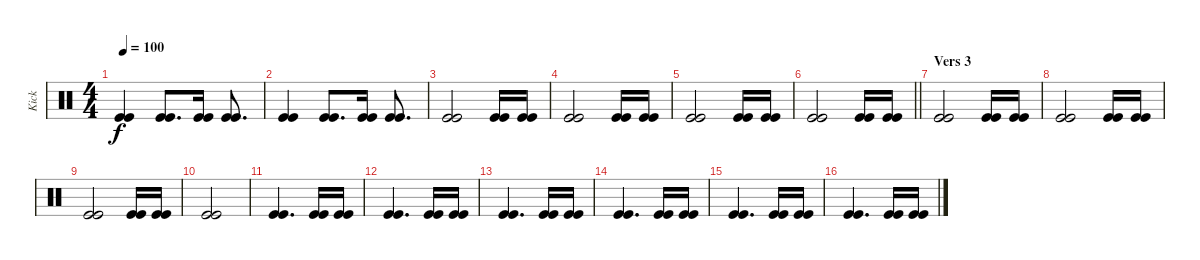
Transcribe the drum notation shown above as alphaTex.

\track ("Kick" "Kick") {instrument percussion}
\staff {score}
\articulation defaults
\ts (4 4)
\tempo 100
\clef neutral
\ks c
("Kick (hit)" "Kick (hit)").4{dy f} ("Kick (hit)" "Kick (hit)").8{d} ("Kick (hit)" "Kick (hit)").16 ("Kick (hit)" "Kick (hit)").8{d} |
("Kick (hit)" "Kick (hit)").4 ("Kick (hit)" "Kick (hit)").8{d} ("Kick (hit)" "Kick (hit)").16 ("Kick (hit)" "Kick (hit)").8{d} |
("Kick (hit)" "Kick (hit)").2{beam merge} ("Kick (hit)" "Kick (hit)").16 ("Kick (hit)" "Kick (hit)").16 |
("Kick (hit)" "Kick (hit)").2{beam merge} ("Kick (hit)" "Kick (hit)").16 ("Kick (hit)" "Kick (hit)").16 |
("Kick (hit)" "Kick (hit)").2{beam merge} ("Kick (hit)" "Kick (hit)").16 ("Kick (hit)" "Kick (hit)").16 |
\barLineRight lightlight
("Kick (hit)" "Kick (hit)").2{beam merge} ("Kick (hit)" "Kick (hit)").16 ("Kick (hit)" "Kick (hit)").16 |
\section ("" "Vers 3")
("Kick (hit)" "Kick (hit)").2{beam merge} ("Kick (hit)" "Kick (hit)").16 ("Kick (hit)" "Kick (hit)").16 |
("Kick (hit)" "Kick (hit)").2{beam merge} ("Kick (hit)" "Kick (hit)").16 ("Kick (hit)" "Kick (hit)").16 |
("Kick (hit)" "Kick (hit)").2{beam merge} ("Kick (hit)" "Kick (hit)").16 ("Kick (hit)" "Kick (hit)").16 |
("Kick (hit)" "Kick (hit)").2 |
("Kick (hit)" "Kick (hit)").4{d beam merge} ("Kick (hit)" "Kick (hit)").16 ("Kick (hit)" "Kick (hit)").16 |
("Kick (hit)" "Kick (hit)").4{d beam merge} ("Kick (hit)" "Kick (hit)").16 ("Kick (hit)" "Kick (hit)").16 |
("Kick (hit)" "Kick (hit)").4{d beam merge} ("Kick (hit)" "Kick (hit)").16 ("Kick (hit)" "Kick (hit)").16 |
("Kick (hit)" "Kick (hit)").4{d beam merge} ("Kick (hit)" "Kick (hit)").16 ("Kick (hit)" "Kick (hit)").16 |
("Kick (hit)" "Kick (hit)").4{d beam merge} ("Kick (hit)" "Kick (hit)").16 ("Kick (hit)" "Kick (hit)").16 |
("Kick (hit)" "Kick (hit)").4{d beam merge} ("Kick (hit)" "Kick (hit)").16 ("Kick (hit)" "Kick (hit)").16
